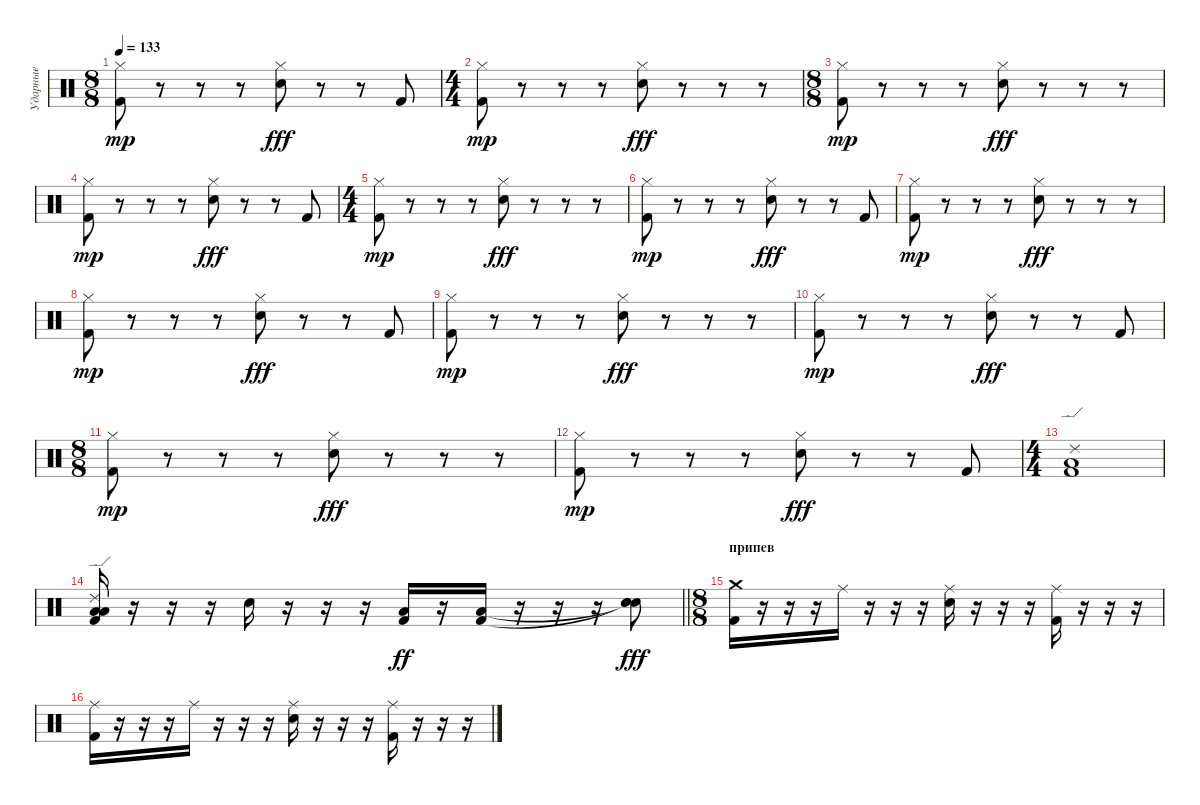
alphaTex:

\track ("Ударные" "Ударные") {instrument percussion}
\staff {score}
\articulation defaults
\ts (8 8)
\tempo 133
\clef neutral
\ks c
("Kick (hit) 2" "Hi-Hat (closed)").8{dy mp} r.8 r.8 r.8 ("Electric Snare (hit)" "Hi-Hat (closed)").8{dy fff} r.8 r.8 "Kick (hit) 2".8 |
\ts (4 4)
("Kick (hit) 2" "Hi-Hat (closed)").8{dy mp} r.8 r.8 r.8 ("Electric Snare (hit)" "Hi-Hat (closed)").8{dy fff} r.8 r.8 r.8 |
\ts (8 8)
("Kick (hit) 2" "Hi-Hat (closed)").8{dy mp} r.8 r.8 r.8 ("Electric Snare (hit)" "Hi-Hat (closed)").8{dy fff} r.8 r.8 r.8 |
("Kick (hit) 2" "Hi-Hat (closed)").8{dy mp} r.8 r.8 r.8 ("Electric Snare (hit)" "Hi-Hat (closed)").8{dy fff} r.8 r.8 "Kick (hit) 2".8 |
\ts (4 4)
("Kick (hit) 2" "Hi-Hat (closed)").8{dy mp} r.8 r.8 r.8 ("Electric Snare (hit)" "Hi-Hat (closed)").8{dy fff} r.8 r.8 r.8 |
("Kick (hit) 2" "Hi-Hat (closed)").8{dy mp} r.8 r.8 r.8 ("Electric Snare (hit)" "Hi-Hat (closed)").8{dy fff} r.8 r.8 "Kick (hit) 2".8 |
("Kick (hit) 2" "Hi-Hat (closed)").8{dy mp} r.8 r.8 r.8 ("Electric Snare (hit)" "Hi-Hat (closed)").8{dy fff} r.8 r.8 r.8 |
("Kick (hit) 2" "Hi-Hat (closed)").8{dy mp} r.8 r.8 r.8 ("Electric Snare (hit)" "Hi-Hat (closed)").8{dy fff} r.8 r.8 "Kick (hit) 2".8 |
("Kick (hit) 2" "Hi-Hat (closed)").8{dy mp} r.8 r.8 r.8 ("Electric Snare (hit)" "Hi-Hat (closed)").8{dy fff} r.8 r.8 r.8 |
("Kick (hit) 2" "Hi-Hat (closed)").8{dy mp} r.8 r.8 r.8 ("Electric Snare (hit)" "Hi-Hat (closed)").8{dy fff} r.8 r.8 "Kick (hit) 2".8 |
\ts (8 8)
("Kick (hit) 2" "Hi-Hat (closed)").8{dy mp} r.8 r.8 r.8 ("Electric Snare (hit)" "Hi-Hat (closed)").8{dy fff} r.8 r.8 r.8 |
("Kick (hit) 2" "Hi-Hat (closed)").8{dy mp} r.8 r.8 r.8 ("Electric Snare (hit)" "Hi-Hat (closed)").8{dy fff} r.8 r.8 "Kick (hit) 2".8 |
\ts (4 4)
("Ride (edge) 2" "Low Floor Tom (hit)" "Kick (hit) 2").1 |
\barLineRight lightlight
("Ride (edge) 2" "Low Floor Tom (hit)" "Low Floor Tom (hit)" "Kick (hit) 2").16 r.16 r.16 r.16 "Snare (hit) 2".16 r.16 r.16 r.16 ("Low Tom (hit)" "Kick (hit) 2").16{dy ff} r.16 ("Low Floor Tom (hit)" "Kick (hit) 2").16 r.16 r.16 r.16 ("Snare (hit)"{t} "Snare (hit)"{t} "Snare (hit) 2").8{dy fff} |
\ts (8 8)
\section ("" "припев")
("Crash medium (hit)" "Kick (hit) 2").16 r.16 r.16 r.16 "Ride (middle)".16 r.16 r.16 r.16 ("Ride (middle)" "Snare (hit) 2").16 r.16 r.16 r.16 ("Ride (middle)" "Kick (hit) 2").16 r.16 r.16 r.16 |
("Ride (middle)" "Kick (hit) 2").16 r.16 r.16 r.16 "Ride (middle)".16 r.16 r.16 r.16 ("Ride (middle)" "Snare (hit) 2").16 r.16 r.16 r.16 ("Ride (middle)" "Kick (hit) 2").16 r.16 r.16 r.16
